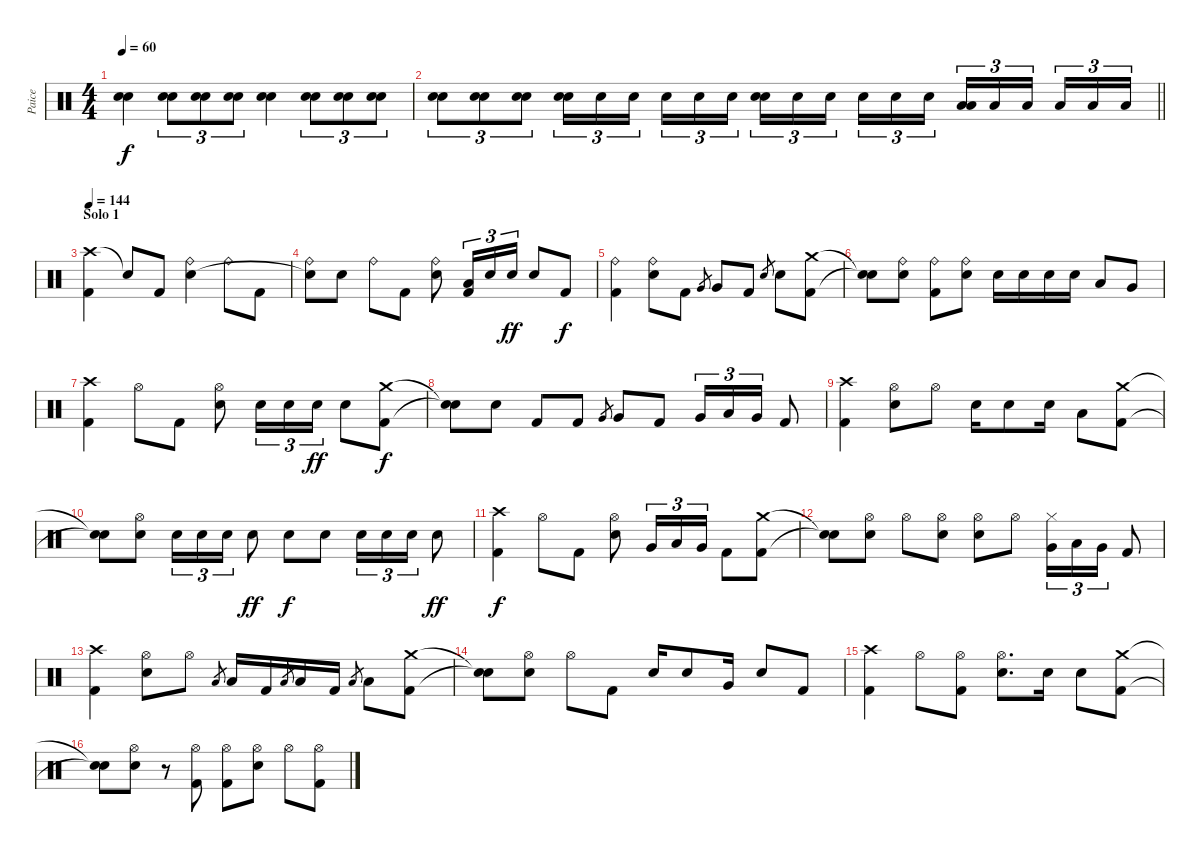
\track ("Paice" "Paice") {instrument percussion}
\staff {score}
\articulation defaults
\ts (4 4)
\tempo 60
\tempo 152
\tempo 60
\clef neutral
\ks c
("Electric Snare (hit)" "Electric Snare (hit)").4{dy f} ("Electric Snare (hit)" "Electric Snare (hit)").8{tu (3 2)} ("Electric Snare (hit)" "Electric Snare (hit)").8{tu (3 2)} ("Electric Snare (hit)" "Electric Snare (hit)").8{tu (3 2)} ("Electric Snare (hit)" "Electric Snare (hit)").4 ("Electric Snare (hit)" "Electric Snare (hit)").8{tu (3 2)} ("Electric Snare (hit)" "Electric Snare (hit)").8{tu (3 2)} ("Electric Snare (hit)" "Electric Snare (hit)").8{tu (3 2)} |
\barLineRight lightlight
("Electric Snare (hit)" "Electric Snare (hit)").8{tu (3 2)} ("Electric Snare (hit)" "Electric Snare (hit)").8{tu (3 2)} ("Electric Snare (hit)" "Electric Snare (hit)").8{tu (3 2)} ("Electric Snare (hit)" "Electric Snare (hit)").16{tu (3 2)} "Electric Snare (hit)".16{tu (3 2)} "Electric Snare (hit)".16{tu (3 2) beam splitsecondary} "Electric Snare (hit)".16{tu (3 2)} "Electric Snare (hit)".16{tu (3 2)} "Electric Snare (hit)".16{tu (3 2)} ("Electric Snare (hit)" "Electric Snare (hit)").16{tu (3 2)} "Electric Snare (hit)".16{tu (3 2)} "Electric Snare (hit)".16{tu (3 2) beam splitsecondary} "Electric Snare (hit)".16{tu (3 2)} "Electric Snare (hit)".16{tu (3 2)} "Electric Snare (hit)".16{tu (3 2)} ("Low Tom (hit)" "Low Tom (hit)").16{tu (3 2)} "Low Tom (hit)".16{tu (3 2)} "Low Tom (hit)".16{tu (3 2) beam splitsecondary} "Low Tom (hit)".16{tu (3 2)} "Low Tom (hit)".16{tu (3 2)} "Low Tom (hit)".16{tu (3 2)} |
\section ("" "Solo 1")
\tempo 144
("Crash high (hit)" "Kick (hit) 2").4 "Snare (hit)"{t}.8 "Kick (hit) 2".8 ("Ride (bell)" "Electric Snare (hit)").4 "Ride (bell)".8 "Kick (hit) 2".8 |
("Ride (bell)" "Snare (hit)"{t}).8 "Electric Snare (hit)".8 "Ride (bell)".8 "Kick (hit) 2".8 ("Ride (bell)" "Electric Snare (hit)").8 ("Low Tom (hit)" "Kick (hit) 2").16{tu (3 2)} "Electric Snare (hit)".16{tu (3 2)} "Electric Snare (hit)".16{tu (3 2) dy ff} "Electric Snare (hit)".8 "Kick (hit) 2".8{dy f} |
("Ride (bell)" "Kick (hit) 2").4 ("Ride (bell)" "Electric Snare (hit)").8 "Kick (hit) 2".8 "Very Low Tom (hit)".8{gr} "Very Low Tom (hit)".8 "Kick (hit) 2".8 "Electric Snare (hit)".8{gr} "Electric Snare (hit)".8 ("Crash medium (hit)" "Kick (hit) 2").8 |
("Snare (hit)"{t} "Snare (hit)"{t}).8 ("Ride (bell)" "Electric Snare (hit)").8 ("Ride (bell)" "Kick (hit) 2").8 ("Ride (bell)" "Electric Snare (hit)").8 "Electric Snare (hit)".16 "Electric Snare (hit)".16 "Electric Snare (hit)".16 "Electric Snare (hit)".16 "Low Tom (hit)".8 "Very Low Tom (hit)".8 |
("Crash high (hit)" "Kick (hit) 2").4 "Hi-Hat (open)".8 "Kick (hit) 2".8 ("Hi-Hat (open)" "Electric Snare (hit)").8 "Electric Snare (hit)".16{tu (3 2)} "Electric Snare (hit)".16{tu (3 2)} "Electric Snare (hit)".16{tu (3 2) dy ff} "Electric Snare (hit)".8 ("Crash medium (hit)" "Kick (hit) 2").8{dy f} |
("Snare (hit)"{t} "Snare (hit)"{t}).8 "Electric Snare (hit)".8 "Kick (hit) 2".8 "Kick (hit) 2".8 "Very Low Tom (hit)".8{gr} "Very Low Tom (hit)".8 "Kick (hit) 2".8 "Very Low Tom (hit)".16{tu (3 2)} "Low Tom (hit)".16{tu (3 2)} "Very Low Tom (hit)".16{tu (3 2)} "Kick (hit) 2".8 |
("Crash high (hit)" "Kick (hit) 2").4 ("Hi-Hat (open)" "Electric Snare (hit)").8 "Hi-Hat (open)".8 "Electric Snare (hit)".16 "Electric Snare (hit)".8 "Electric Snare (hit)".16 "Low Tom (hit)".8 ("Crash medium (hit)" "Kick (hit) 2").8 |
("Snare (hit)"{t} "Snare (hit)"{t}).8 ("Hi-Hat (open)" "Electric Snare (hit)").8 "Electric Snare (hit)".16{tu (3 2)} "Electric Snare (hit)".16{tu (3 2)} "Electric Snare (hit)".16{tu (3 2)} "Electric Snare (hit)".8{dy ff} "Electric Snare (hit)".8{dy f} "Electric Snare (hit)".8 "Electric Snare (hit)".16{tu (3 2)} "Electric Snare (hit)".16{tu (3 2)} "Electric Snare (hit)".16{tu (3 2)} "Electric Snare (hit)".8{dy ff} |
("Crash high (hit)" "Kick (hit) 2").4{dy f} "Hi-Hat (open)".8 "Kick (hit) 2".8 ("Hi-Hat (open)" "Electric Snare (hit)").8 "Very Low Tom (hit)".16{tu (3 2)} "Low Tom (hit)".16{tu (3 2)} "Very Low Tom (hit)".16{tu (3 2)} "Kick (hit) 2".8 ("Crash medium (hit)" "Kick (hit) 2").8 |
("Snare (hit)"{t} "Snare (hit)"{t}).8 ("Hi-Hat (open)" "Electric Snare (hit)").8 "Hi-Hat (open)".8 ("Hi-Hat (open)" "Electric Snare (hit)").8 ("Hi-Hat (open)" "Electric Snare (hit)").8 "Hi-Hat (open)".8 ("Hi-Hat (closed)" "Very Low Tom (hit)").16{tu (3 2)} "Low Tom (hit)".16{tu (3 2)} "Very Low Tom (hit)".16{tu (3 2)} "Kick (hit) 2".8 |
("Crash high (hit)" "Kick (hit) 2").4 ("Hi-Hat (open)" "Electric Snare (hit)").8 "Hi-Hat (open)".8 "Low Floor Tom (hit)".8{gr} "Low Floor Tom (hit)".16 "Kick (hit) 2".16 "Low Floor Tom (hit)".8{gr} "Low Floor Tom (hit)".16 "Kick (hit) 2".16 "Low Floor Tom (hit)".8{gr} "Low Floor Tom (hit)".8 ("Crash medium (hit)" "Kick (hit) 2").8 |
("Snare (hit)"{t} "Snare (hit)"{t}).8 ("Hi-Hat (open)" "Electric Snare (hit)").8 "Hi-Hat (open)".8 "Kick (hit) 2".8 "Electric Snare (hit)".16 "Electric Snare (hit)".8 "Very Low Tom (hit)".16 "Electric Snare (hit)".8 "Kick (hit) 2".8 |
("Crash high (hit)" "Kick (hit) 2").4 "Hi-Hat (open)".8 ("Hi-Hat (open)" "Kick (hit) 2").8 ("Hi-Hat (open)" "Electric Snare (hit)").8{d} "Electric Snare (hit)".16 "Electric Snare (hit)".8 ("Crash medium (hit)" "Kick (hit) 2").8 |
("Snare (hit)"{t} "Snare (hit)"{t}).8 ("Hi-Hat (open)" "Electric Snare (hit)").8 r.8 ("Hi-Hat (open)" "Kick (hit) 2").8 ("Hi-Hat (open)" "Kick (hit) 2").8 ("Hi-Hat (open)" "Electric Snare (hit)").8 "Hi-Hat (open)".8 ("Hi-Hat (open)" "Kick (hit) 2").8
